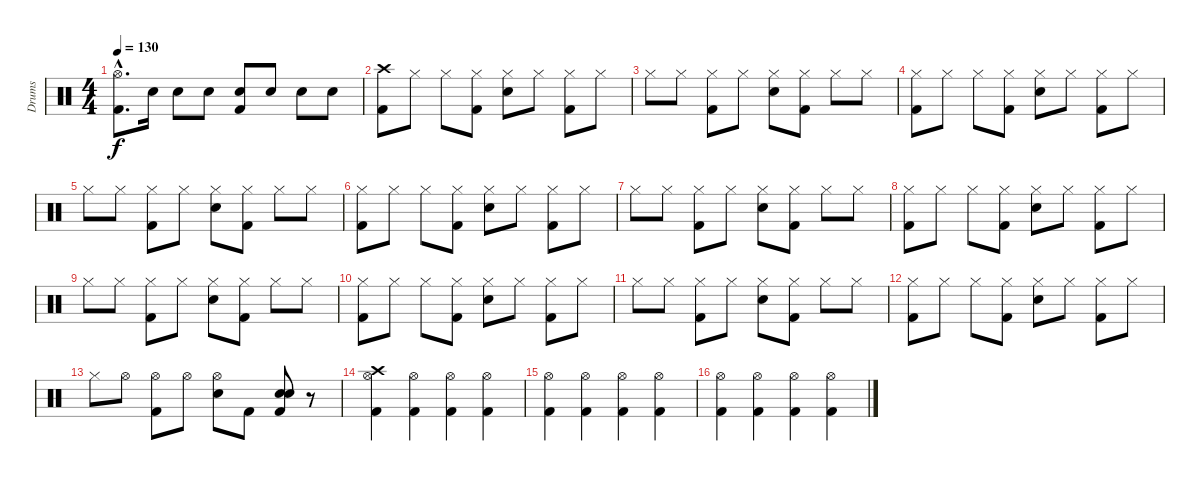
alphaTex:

\track ("Drums" "Drums") {instrument percussion}
\staff {score}
\articulation defaults
\ts (4 4)
\tempo 130
\clef neutral
\ks c
("Hi-Hat (open)"{hac} "Kick (hit) 2"{hac}).8{d dy f} "Snare (hit) 2".16 "Snare (hit) 2".8 "Snare (hit) 2".8 ("Snare (hit) 2" "Kick (hit) 2").8 "Snare (hit) 2".8 "Snare (hit) 2".8 "Snare (hit) 2".8 |
("Crash high (hit)" "Kick (hit) 2").8 "Hi-Hat (closed)".8 "Hi-Hat (closed)".8 ("Hi-Hat (closed)" "Kick (hit) 2").8 ("Hi-Hat (closed)" "Snare (hit) 2").8 "Hi-Hat (closed)".8 ("Hi-Hat (closed)" "Kick (hit) 2").8 "Hi-Hat (closed)".8 |
"Hi-Hat (closed)".8 "Hi-Hat (closed)".8 ("Hi-Hat (closed)" "Kick (hit) 2").8 "Hi-Hat (closed)".8 ("Hi-Hat (closed)" "Snare (hit) 2").8 ("Hi-Hat (closed)" "Kick (hit) 2").8 "Hi-Hat (closed)".8 "Hi-Hat (closed)".8 |
("Hi-Hat (closed)" "Kick (hit) 2").8 "Hi-Hat (closed)".8 "Hi-Hat (closed)".8 ("Hi-Hat (closed)" "Kick (hit) 2").8 ("Hi-Hat (closed)" "Snare (hit) 2").8 "Hi-Hat (closed)".8 ("Hi-Hat (closed)" "Kick (hit) 2").8 "Hi-Hat (closed)".8 |
"Hi-Hat (closed)".8 "Hi-Hat (closed)".8 ("Hi-Hat (closed)" "Kick (hit) 2").8 "Hi-Hat (closed)".8 ("Hi-Hat (closed)" "Snare (hit) 2").8 ("Hi-Hat (closed)" "Kick (hit) 2").8 "Hi-Hat (closed)".8 "Hi-Hat (closed)".8 |
("Hi-Hat (closed)" "Kick (hit) 2").8 "Hi-Hat (closed)".8 "Hi-Hat (closed)".8 ("Hi-Hat (closed)" "Kick (hit) 2").8 ("Hi-Hat (closed)" "Snare (hit) 2").8 "Hi-Hat (closed)".8 ("Hi-Hat (closed)" "Kick (hit) 2").8 "Hi-Hat (closed)".8 |
"Hi-Hat (closed)".8 "Hi-Hat (closed)".8 ("Hi-Hat (closed)" "Kick (hit) 2").8 "Hi-Hat (closed)".8 ("Hi-Hat (closed)" "Snare (hit) 2").8 ("Hi-Hat (closed)" "Kick (hit) 2").8 "Hi-Hat (closed)".8 "Hi-Hat (closed)".8 |
("Hi-Hat (closed)" "Kick (hit) 2").8 "Hi-Hat (closed)".8 "Hi-Hat (closed)".8 ("Hi-Hat (closed)" "Kick (hit) 2").8 ("Hi-Hat (closed)" "Snare (hit) 2").8 "Hi-Hat (closed)".8 ("Hi-Hat (closed)" "Kick (hit) 2").8 "Hi-Hat (closed)".8 |
"Hi-Hat (closed)".8 "Hi-Hat (closed)".8 ("Hi-Hat (closed)" "Kick (hit) 2").8 "Hi-Hat (closed)".8 ("Hi-Hat (closed)" "Snare (hit) 2").8 ("Hi-Hat (closed)" "Kick (hit) 2").8 "Hi-Hat (closed)".8 "Hi-Hat (closed)".8 |
("Hi-Hat (closed)" "Kick (hit) 2").8 "Hi-Hat (closed)".8 "Hi-Hat (closed)".8 ("Hi-Hat (closed)" "Kick (hit) 2").8 ("Hi-Hat (closed)" "Snare (hit) 2").8 "Hi-Hat (closed)".8 ("Hi-Hat (closed)" "Kick (hit) 2").8 "Hi-Hat (closed)".8 |
"Hi-Hat (closed)".8 "Hi-Hat (closed)".8 ("Hi-Hat (closed)" "Kick (hit) 2").8 "Hi-Hat (closed)".8 ("Hi-Hat (closed)" "Snare (hit) 2").8 ("Hi-Hat (closed)" "Kick (hit) 2").8 "Hi-Hat (closed)".8 "Hi-Hat (closed)".8 |
("Hi-Hat (closed)" "Kick (hit) 2").8 "Hi-Hat (closed)".8 "Hi-Hat (closed)".8 ("Hi-Hat (closed)" "Kick (hit) 2").8 ("Hi-Hat (closed)" "Snare (hit) 2").8 "Hi-Hat (closed)".8 ("Hi-Hat (closed)" "Kick (hit) 2").8 "Hi-Hat (closed)".8 |
"Hi-Hat (closed)".8 "Hi-Hat (open)".8 ("Hi-Hat (open)" "Kick (hit) 2").8 "Hi-Hat (open)".8 ("Hi-Hat (open)" "Snare (hit) 2").8 "Kick (hit) 2".8 ("Snare (hit) 2" "Snare (hit) 2" "Kick (hit) 2").8 r.8 |
("Hi-Hat (open)" "Kick (hit) 2" "Crash high (hit)").4 ("Hi-Hat (open)" "Kick (hit) 2").4 ("Hi-Hat (open)" "Kick (hit) 2").4 ("Hi-Hat (open)" "Kick (hit) 2").4 |
("Hi-Hat (open)" "Kick (hit) 2").4 ("Hi-Hat (open)" "Kick (hit) 2").4 ("Hi-Hat (open)" "Kick (hit) 2").4 ("Hi-Hat (open)" "Kick (hit) 2").4 |
("Hi-Hat (open)" "Kick (hit) 2").4 ("Hi-Hat (open)" "Kick (hit) 2").4 ("Hi-Hat (open)" "Kick (hit) 2").4 ("Hi-Hat (open)" "Kick (hit) 2").4
